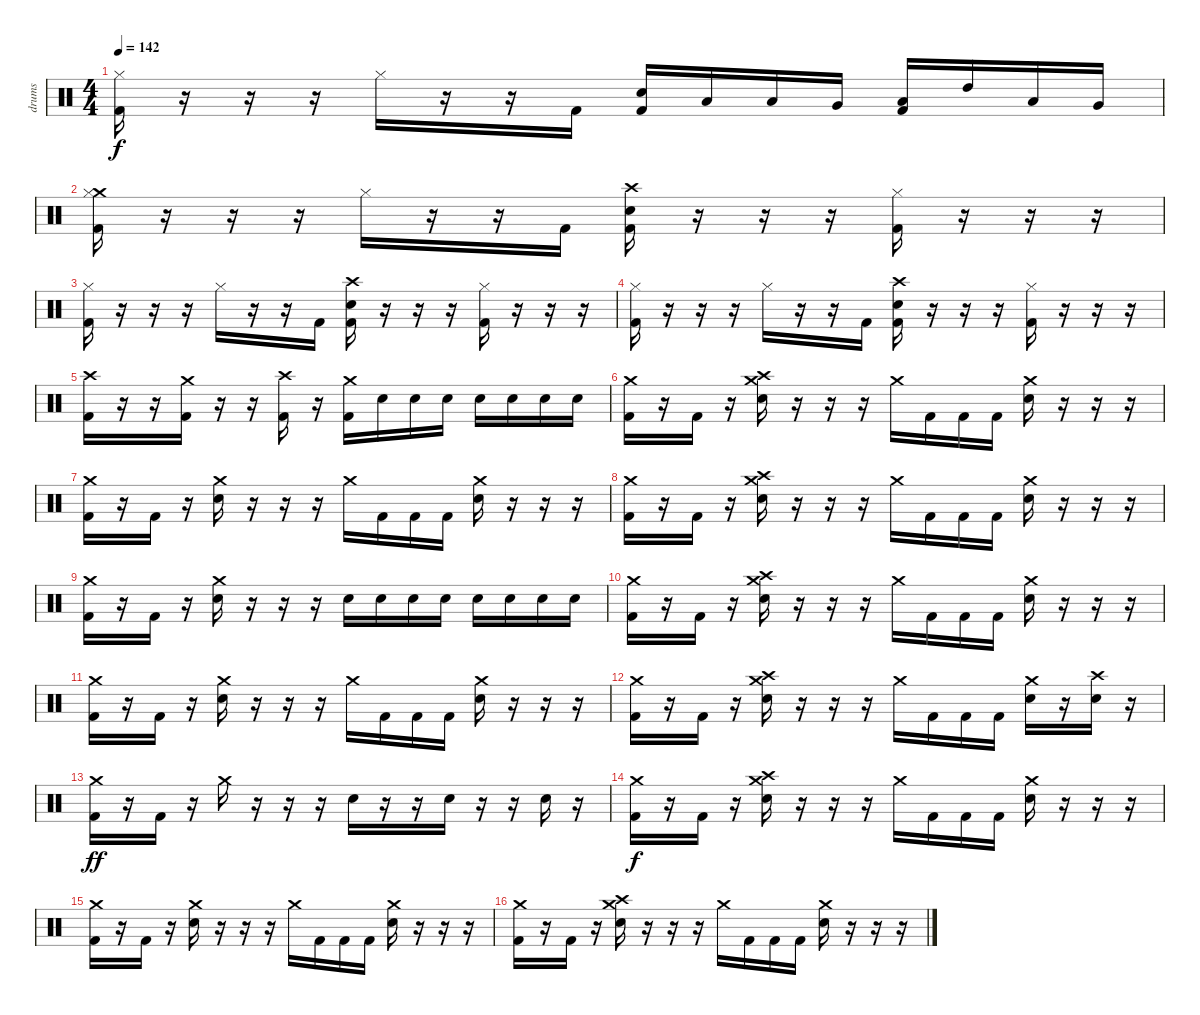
\track ("drums" "drums") {instrument percussion}
\staff {score}
\articulation defaults
\ts (4 4)
\tempo 142
\clef neutral
\ks c
("Hi-Hat (closed)" "Kick (hit) 2").16{dy f} r.16 r.16 r.16 "Hi-Hat (closed)".16 r.16 r.16 "Kick (hit) 2".16 ("Electric Snare (hit)" "Kick (hit) 2").16 "Low Floor Tom (hit)".16 "Low Floor Tom (hit)".16 "Very Low Tom (hit)".16 ("Low Tom (hit)" "Kick (hit) 2").16 "High Tom (hit)".16 "Low Tom (hit)".16 "Very Low Tom (hit)".16 |
("Crash medium (hit)" "Hi-Hat (closed)" "Kick (hit) 2").16 r.16 r.16 r.16 "Hi-Hat (closed)".16 r.16 r.16 "Kick (hit) 2".16 ("Crash high (hit)" "Electric Snare (hit)" "Kick (hit) 2").16 r.16 r.16 r.16 ("Hi-Hat (closed)" "Kick (hit) 2").16 r.16 r.16 r.16 |
("Hi-Hat (closed)" "Kick (hit) 2").16 r.16 r.16 r.16 "Hi-Hat (closed)".16 r.16 r.16 "Kick (hit) 2".16 ("Crash high (hit)" "Electric Snare (hit)" "Kick (hit) 2").16 r.16 r.16 r.16 ("Hi-Hat (closed)" "Kick (hit) 2").16 r.16 r.16 r.16 |
("Hi-Hat (closed)" "Kick (hit) 2").16 r.16 r.16 r.16 "Hi-Hat (closed)".16 r.16 r.16 "Kick (hit) 2".16 ("Crash high (hit)" "Electric Snare (hit)" "Kick (hit) 2").16 r.16 r.16 r.16 ("Hi-Hat (closed)" "Kick (hit) 2").16 r.16 r.16 r.16 |
("Crash high (hit)" "Kick (hit) 2").16 r.16 r.16 ("Crash medium (hit)" "Kick (hit) 2").16 r.16 r.16 ("Crash high (hit)" "Kick (hit) 2").16 r.16 ("Crash medium (hit)" "Kick (hit) 2").16 "Electric Snare (hit)".16 "Electric Snare (hit)".16 "Electric Snare (hit)".16 "Electric Snare (hit)".16 "Electric Snare (hit)".16 "Electric Snare (hit)".16 "Electric Snare (hit)".16 |
("Crash medium (hit)" "Kick (hit) 2").16 r.16 "Kick (hit) 2".16 r.16 ("Crash high (hit)" "Crash medium (hit)" "Electric Snare (hit)").16 r.16 r.16 r.16 "Crash medium (hit)".16 "Kick (hit) 2".16 "Kick (hit) 2".16 "Kick (hit) 2".16 ("Crash medium (hit)" "Electric Snare (hit)").16 r.16 r.16 r.16 |
("Crash medium (hit)" "Kick (hit) 2").16 r.16 "Kick (hit) 2".16 r.16 ("Crash medium (hit)" "Electric Snare (hit)").16 r.16 r.16 r.16 "Crash medium (hit)".16 "Kick (hit) 2".16 "Kick (hit) 2".16 "Kick (hit) 2".16 ("Crash medium (hit)" "Electric Snare (hit)").16 r.16 r.16 r.16 |
("Crash medium (hit)" "Kick (hit) 2").16 r.16 "Kick (hit) 2".16 r.16 ("Crash high (hit)" "Crash medium (hit)" "Electric Snare (hit)").16 r.16 r.16 r.16 "Crash medium (hit)".16 "Kick (hit) 2".16 "Kick (hit) 2".16 "Kick (hit) 2".16 ("Crash medium (hit)" "Electric Snare (hit)").16 r.16 r.16 r.16 |
("Crash medium (hit)" "Kick (hit) 2").16 r.16 "Kick (hit) 2".16 r.16 ("Crash medium (hit)" "Electric Snare (hit)").16 r.16 r.16 r.16 "Electric Snare (hit)".16 "Electric Snare (hit)".16 "Electric Snare (hit)".16 "Electric Snare (hit)".16 "Electric Snare (hit)".16 "Electric Snare (hit)".16 "Electric Snare (hit)".16 "Electric Snare (hit)".16 |
("Crash medium (hit)" "Kick (hit) 2").16 r.16 "Kick (hit) 2".16 r.16 ("Crash high (hit)" "Crash medium (hit)" "Electric Snare (hit)").16 r.16 r.16 r.16 "Crash medium (hit)".16 "Kick (hit) 2".16 "Kick (hit) 2".16 "Kick (hit) 2".16 ("Crash medium (hit)" "Electric Snare (hit)").16 r.16 r.16 r.16 |
("Crash medium (hit)" "Kick (hit) 2").16 r.16 "Kick (hit) 2".16 r.16 ("Crash medium (hit)" "Electric Snare (hit)").16 r.16 r.16 r.16 "Crash medium (hit)".16 "Kick (hit) 2".16 "Kick (hit) 2".16 "Kick (hit) 2".16 ("Crash medium (hit)" "Electric Snare (hit)").16 r.16 r.16 r.16 |
("Crash medium (hit)" "Kick (hit) 2").16 r.16 "Kick (hit) 2".16 r.16 ("Crash high (hit)" "Crash medium (hit)" "Electric Snare (hit)").16 r.16 r.16 r.16 "Crash medium (hit)".16 "Kick (hit) 2".16 "Kick (hit) 2".16 "Kick (hit) 2".16 ("Crash medium (hit)" "Electric Snare (hit)").16 r.16 ("Crash high (hit)" "Electric Snare (hit)").16 r.16 |
("Crash medium (hit)" "Kick (hit) 2").16{dy ff} r.16 "Kick (hit) 2".16 r.16 "Crash medium (hit)".16 r.16 r.16 r.16 "Electric Snare (hit)".16 r.16 r.16 "Snare (hit) 2".16 r.16 r.16 "Snare (hit) 2".16 r.16 |
("Crash medium (hit)" "Kick (hit) 2").16{dy f} r.16 "Kick (hit) 2".16 r.16 ("Crash high (hit)" "Crash medium (hit)" "Electric Snare (hit)").16 r.16 r.16 r.16 "Crash medium (hit)".16 "Kick (hit) 2".16 "Kick (hit) 2".16 "Kick (hit) 2".16 ("Crash medium (hit)" "Electric Snare (hit)").16 r.16 r.16 r.16 |
("Crash medium (hit)" "Kick (hit) 2").16 r.16 "Kick (hit) 2".16 r.16 ("Crash medium (hit)" "Electric Snare (hit)").16 r.16 r.16 r.16 "Crash medium (hit)".16 "Kick (hit) 2".16 "Kick (hit) 2".16 "Kick (hit) 2".16 ("Crash medium (hit)" "Electric Snare (hit)").16 r.16 r.16 r.16 |
("Crash medium (hit)" "Kick (hit) 2").16 r.16 "Kick (hit) 2".16 r.16 ("Crash high (hit)" "Crash medium (hit)" "Electric Snare (hit)").16 r.16 r.16 r.16 "Crash medium (hit)".16 "Kick (hit) 2".16 "Kick (hit) 2".16 "Kick (hit) 2".16 ("Crash medium (hit)" "Electric Snare (hit)").16 r.16 r.16 r.16
